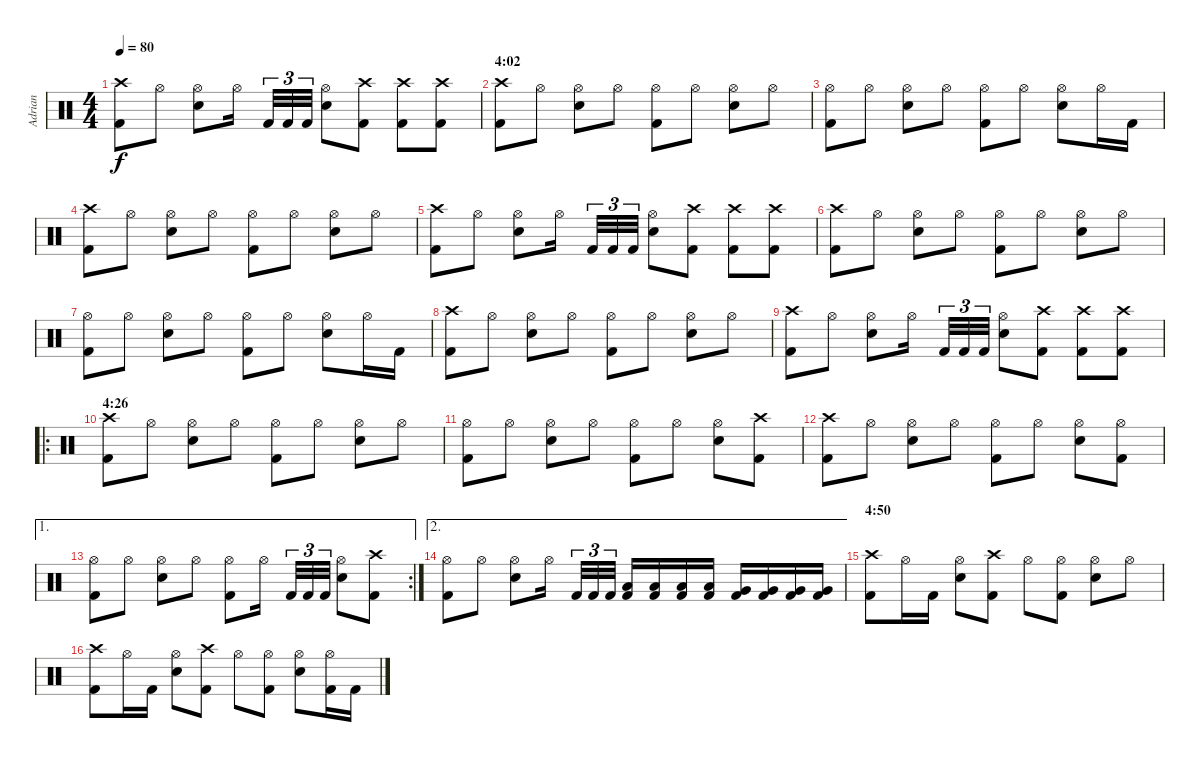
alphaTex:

\track ("Adrian" "Adrian") {instrument percussion}
\staff {score}
\articulation defaults
\ts (4 4)
\tempo 80
\clef neutral
\ks c
("Kick (hit) 2" "Crash high (hit)").8{dy f} "Hi-Hat (open)".8 ("Snare (hit) 2" "Hi-Hat (open)").8 "Hi-Hat (open)".16 "Kick (hit) 2".32{tu (3 2)} "Kick (hit) 2".32{tu (3 2)} "Kick (hit) 2".32{tu (3 2)} ("Snare (hit) 2" "Hi-Hat (open)").8 ("Kick (hit) 2" "Crash high (hit)").8 ("Kick (hit) 2" "Crash high (hit)").8 ("Kick (hit) 2" "Crash high (hit)").8 |
\section ("" "4:02")
("Kick (hit) 2" "Crash high (hit)").8 "Hi-Hat (open)".8 ("Snare (hit) 2" "Hi-Hat (open)").8 "Hi-Hat (open)".8 ("Kick (hit) 2" "Hi-Hat (open)").8 "Hi-Hat (open)".8 ("Snare (hit) 2" "Hi-Hat (open)").8 "Hi-Hat (open)".8 |
("Kick (hit) 2" "Hi-Hat (open)").8 "Hi-Hat (open)".8 ("Snare (hit) 2" "Hi-Hat (open)").8 "Hi-Hat (open)".8 ("Kick (hit) 2" "Hi-Hat (open)").8 "Hi-Hat (open)".8 ("Snare (hit) 2" "Hi-Hat (open)").8 "Hi-Hat (open)".16 "Kick (hit) 2".16 |
("Kick (hit) 2" "Crash high (hit)").8 "Hi-Hat (open)".8 ("Snare (hit) 2" "Hi-Hat (open)").8 "Hi-Hat (open)".8 ("Kick (hit) 2" "Hi-Hat (open)").8 "Hi-Hat (open)".8 ("Snare (hit) 2" "Hi-Hat (open)").8 "Hi-Hat (open)".8 |
("Kick (hit) 2" "Crash high (hit)").8 "Hi-Hat (open)".8 ("Snare (hit) 2" "Hi-Hat (open)").8 "Hi-Hat (open)".16 "Kick (hit) 2".32{tu (3 2)} "Kick (hit) 2".32{tu (3 2)} "Kick (hit) 2".32{tu (3 2)} ("Snare (hit) 2" "Hi-Hat (open)").8 ("Kick (hit) 2" "Crash high (hit)").8 ("Kick (hit) 2" "Crash high (hit)").8 ("Kick (hit) 2" "Crash high (hit)").8 |
("Kick (hit) 2" "Crash high (hit)").8 "Hi-Hat (open)".8 ("Snare (hit) 2" "Hi-Hat (open)").8 "Hi-Hat (open)".8 ("Kick (hit) 2" "Hi-Hat (open)").8 "Hi-Hat (open)".8 ("Snare (hit) 2" "Hi-Hat (open)").8 "Hi-Hat (open)".8 |
("Kick (hit) 2" "Hi-Hat (open)").8 "Hi-Hat (open)".8 ("Snare (hit) 2" "Hi-Hat (open)").8 "Hi-Hat (open)".8 ("Kick (hit) 2" "Hi-Hat (open)").8 "Hi-Hat (open)".8 ("Snare (hit) 2" "Hi-Hat (open)").8 "Hi-Hat (open)".16 "Kick (hit) 2".16 |
("Kick (hit) 2" "Crash high (hit)").8 "Hi-Hat (open)".8 ("Snare (hit) 2" "Hi-Hat (open)").8 "Hi-Hat (open)".8 ("Kick (hit) 2" "Hi-Hat (open)").8 "Hi-Hat (open)".8 ("Snare (hit) 2" "Hi-Hat (open)").8 "Hi-Hat (open)".8 |
("Kick (hit) 2" "Crash high (hit)").8 "Hi-Hat (open)".8 ("Snare (hit) 2" "Hi-Hat (open)").8 "Hi-Hat (open)".16 "Kick (hit) 2".32{tu (3 2)} "Kick (hit) 2".32{tu (3 2)} "Kick (hit) 2".32{tu (3 2)} ("Snare (hit) 2" "Hi-Hat (open)").8 ("Kick (hit) 2" "Crash high (hit)").8 ("Kick (hit) 2" "Crash high (hit)").8 ("Kick (hit) 2" "Crash high (hit)").8 |
\ro
\section ("" "4:26")
("Kick (hit) 2" "Crash high (hit)").8 "Hi-Hat (open)".8 ("Snare (hit) 2" "Hi-Hat (open)").8 "Hi-Hat (open)".8 ("Kick (hit) 2" "Hi-Hat (open)").8 "Hi-Hat (open)".8 ("Snare (hit) 2" "Hi-Hat (open)").8 "Hi-Hat (open)".8 |
("Kick (hit) 2" "Hi-Hat (open)").8 "Hi-Hat (open)".8 ("Snare (hit) 2" "Hi-Hat (open)").8 "Hi-Hat (open)".8 ("Kick (hit) 2" "Hi-Hat (open)").8 "Hi-Hat (open)".8 ("Snare (hit) 2" "Hi-Hat (open)").8 ("Kick (hit) 2" "Crash high (hit)").8 |
("Kick (hit) 2" "Crash high (hit)").8 "Hi-Hat (open)".8 ("Snare (hit) 2" "Hi-Hat (open)").8 "Hi-Hat (open)".8 ("Kick (hit) 2" "Hi-Hat (open)").8 "Hi-Hat (open)".8 ("Snare (hit) 2" "Hi-Hat (open)").8 ("Kick (hit) 2" "Hi-Hat (open)").8 |
\ae 1
\rc 2
("Kick (hit) 2" "Hi-Hat (open)").8 "Hi-Hat (open)".8 ("Snare (hit) 2" "Hi-Hat (open)").8 "Hi-Hat (open)".8 ("Kick (hit) 2" "Hi-Hat (open)").8 "Hi-Hat (open)".16 "Kick (hit) 2".32{tu (3 2)} "Kick (hit) 2".32{tu (3 2)} "Kick (hit) 2".32{tu (3 2)} ("Snare (hit) 2" "Hi-Hat (open)").8 ("Kick (hit) 2" "Crash high (hit)").8 |
\ae 2
("Kick (hit) 2" "Hi-Hat (open)").8 "Hi-Hat (open)".8 ("Snare (hit) 2" "Hi-Hat (open)").8 "Hi-Hat (open)".16 "Kick (hit) 2".32{tu (3 2)} "Kick (hit) 2".32{tu (3 2)} "Kick (hit) 2".32{tu (3 2)} ("Kick (hit) 2" "Low Tom (hit)").16 ("Kick (hit) 2" "Low Tom (hit)").16 ("Kick (hit) 2" "Low Tom (hit)").16 ("Kick (hit) 2" "Low Tom (hit)").16 ("Kick (hit) 2" "Very Low Tom (hit)").16 ("Kick (hit) 2" "Very Low Tom (hit)").16 ("Kick (hit) 2" "Very Low Tom (hit)").16 ("Kick (hit) 2" "Very Low Tom (hit)").16 |
\section ("" "4:50")
("Kick (hit) 2" "Crash high (hit)").8 "Hi-Hat (open)".16 "Kick (hit) 2".16 ("Snare (hit) 2" "Hi-Hat (open)").8 ("Kick (hit) 2" "Crash high (hit)").8 "Hi-Hat (open)".8 ("Kick (hit) 2" "Hi-Hat (open)").8 ("Snare (hit) 2" "Hi-Hat (open)").8 "Hi-Hat (open)".8 |
("Kick (hit) 2" "Crash high (hit)").8 "Hi-Hat (open)".16 "Kick (hit) 2".16 ("Snare (hit) 2" "Hi-Hat (open)").8 ("Kick (hit) 2" "Crash high (hit)").8 "Hi-Hat (open)".8 ("Kick (hit) 2" "Hi-Hat (open)").8 ("Snare (hit) 2" "Hi-Hat (open)").8 ("Kick (hit) 2" "Hi-Hat (open)").16 "Kick (hit) 2".16
